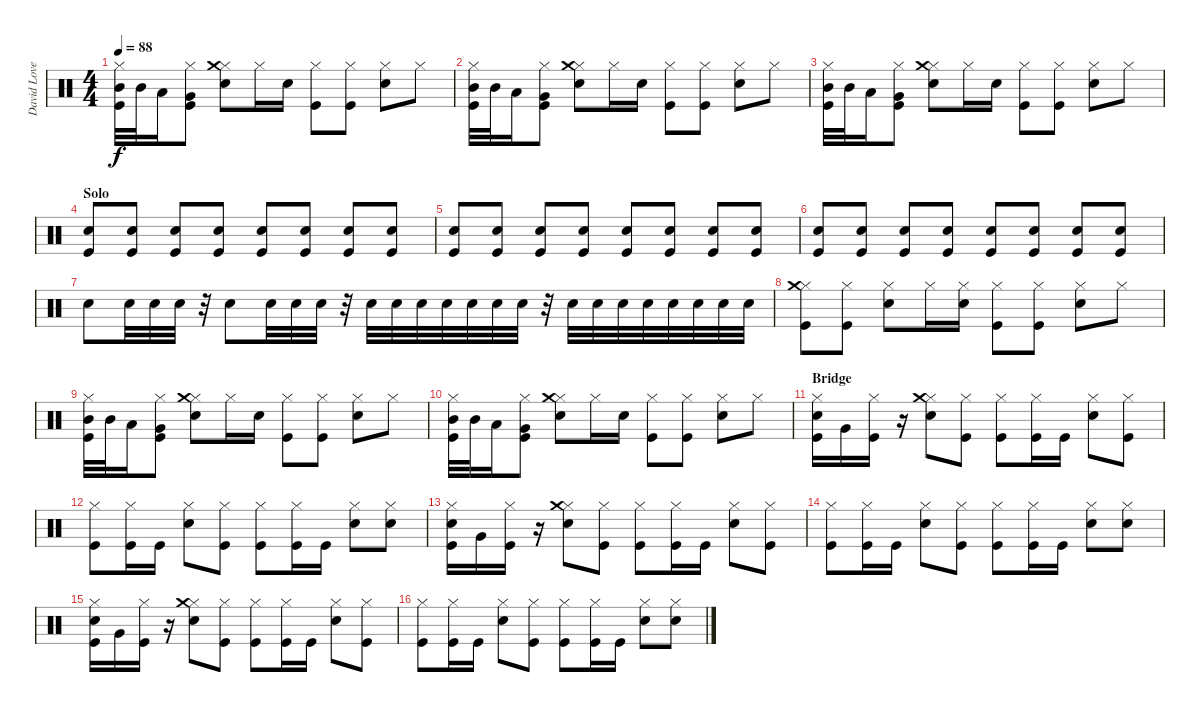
\track ("David Lovering" "David Love") {instrument percussion}
\staff {score}
\articulation defaults
\ts (4 4)
\tempo 88
\clef neutral
\ks c
("Hi-Hat (closed)" "Mid Tom (hit)" "Kick (hit)").32{dy f} "Mid Tom (hit)".32 "Low Tom (hit)".16 ("Hi-Hat (closed)" "Very Low Tom (hit)" "Kick (hit)").8 ("Hi-Hat (closed)" "Crash medium (hit)" "Snare (hit) 2").8 "Hi-Hat (closed)".16 "Snare (hit) 2".16 ("Hi-Hat (closed)" "Kick (hit)").8 ("Hi-Hat (closed)" "Kick (hit)").8 ("Hi-Hat (closed)" "Snare (hit) 2").8 "Hi-Hat (closed)".8 |
("Hi-Hat (closed)" "Mid Tom (hit)" "Kick (hit)").32 "Mid Tom (hit)".32 "Low Tom (hit)".16 ("Hi-Hat (closed)" "Very Low Tom (hit)" "Kick (hit)").8 ("Hi-Hat (closed)" "Crash medium (hit)" "Snare (hit) 2").8 "Hi-Hat (closed)".16 "Snare (hit) 2".16 ("Hi-Hat (closed)" "Kick (hit)").8 ("Hi-Hat (closed)" "Kick (hit)").8 ("Hi-Hat (closed)" "Snare (hit) 2").8 "Hi-Hat (closed)".8 |
("Hi-Hat (closed)" "Mid Tom (hit)" "Kick (hit)").32 "Mid Tom (hit)".32 "Low Tom (hit)".16 ("Hi-Hat (closed)" "Very Low Tom (hit)" "Kick (hit)").8 ("Hi-Hat (closed)" "Crash medium (hit)" "Snare (hit) 2").8 "Hi-Hat (closed)".16 "Snare (hit) 2".16 ("Hi-Hat (closed)" "Kick (hit)").8 ("Hi-Hat (closed)" "Kick (hit)").8 ("Hi-Hat (closed)" "Snare (hit) 2").8 "Hi-Hat (closed)".8 |
\section ("" "Solo")
("Snare (hit) 2" "Kick (hit)").8 ("Snare (hit) 2" "Kick (hit)").8 ("Snare (hit) 2" "Kick (hit)").8 ("Snare (hit) 2" "Kick (hit)").8 ("Snare (hit) 2" "Kick (hit)").8 ("Snare (hit) 2" "Kick (hit)").8 ("Snare (hit) 2" "Kick (hit)").8 ("Snare (hit) 2" "Kick (hit)").8 |
("Snare (hit) 2" "Kick (hit)").8 ("Snare (hit) 2" "Kick (hit)").8 ("Snare (hit) 2" "Kick (hit)").8 ("Snare (hit) 2" "Kick (hit)").8 ("Snare (hit) 2" "Kick (hit)").8 ("Snare (hit) 2" "Kick (hit)").8 ("Snare (hit) 2" "Kick (hit)").8 ("Snare (hit) 2" "Kick (hit)").8 |
("Snare (hit) 2" "Kick (hit)").8 ("Snare (hit) 2" "Kick (hit)").8 ("Snare (hit) 2" "Kick (hit)").8 ("Snare (hit) 2" "Kick (hit)").8 ("Snare (hit) 2" "Kick (hit)").8 ("Snare (hit) 2" "Kick (hit)").8 ("Snare (hit) 2" "Kick (hit)").8 ("Snare (hit) 2" "Kick (hit)").8 |
"Snare (hit) 2".8 "Snare (hit) 2".32 "Snare (hit) 2".32 "Snare (hit) 2".32 r.32 "Snare (hit) 2".8 "Snare (hit) 2".32 "Snare (hit) 2".32 "Snare (hit) 2".32 r.32 "Snare (hit) 2".32 "Snare (hit) 2".32 "Snare (hit) 2".32 "Snare (hit) 2".32 "Snare (hit) 2".32 "Snare (hit) 2".32 "Snare (hit) 2".32 r.32 "Snare (hit) 2".32 "Snare (hit) 2".32 "Snare (hit) 2".32 "Snare (hit) 2".32 "Snare (hit) 2".32 "Snare (hit) 2".32 "Snare (hit) 2".32 "Snare (hit) 2".32 |
("Hi-Hat (closed)" "Crash medium (hit)" "Kick (hit)").8 ("Hi-Hat (closed)" "Kick (hit)").8 ("Hi-Hat (closed)" "Snare (hit) 2").8 "Hi-Hat (closed)".16 ("Hi-Hat (closed)" "Snare (hit) 2").16 ("Hi-Hat (closed)" "Kick (hit)").8 ("Hi-Hat (closed)" "Kick (hit)").8 ("Hi-Hat (closed)" "Snare (hit) 2").8 "Hi-Hat (closed)".8 |
("Hi-Hat (closed)" "Mid Tom (hit)" "Kick (hit)").32 "Mid Tom (hit)".32 "Low Tom (hit)".16 ("Hi-Hat (closed)" "Very Low Tom (hit)" "Kick (hit)").8 ("Hi-Hat (closed)" "Crash medium (hit)" "Snare (hit) 2").8 "Hi-Hat (closed)".16 "Snare (hit) 2".16 ("Hi-Hat (closed)" "Kick (hit)").8 ("Hi-Hat (closed)" "Kick (hit)").8 ("Hi-Hat (closed)" "Snare (hit) 2").8 "Hi-Hat (closed)".8 |
("Hi-Hat (closed)" "Mid Tom (hit)" "Kick (hit)").32 "Mid Tom (hit)".32 "Low Tom (hit)".16 ("Hi-Hat (closed)" "Very Low Tom (hit)" "Kick (hit)").8 ("Hi-Hat (closed)" "Crash medium (hit)" "Snare (hit) 2").8 "Hi-Hat (closed)".16 "Snare (hit) 2".16 ("Hi-Hat (closed)" "Kick (hit)").8 ("Hi-Hat (closed)" "Kick (hit)").8 ("Hi-Hat (closed)" "Snare (hit) 2").8 "Hi-Hat (closed)".8 |
\section ("" "Bridge")
("Hi-Hat (closed)" "Snare (hit) 2" "Kick (hit)").16 "Very Low Tom (hit)".16 ("Hi-Hat (closed)" "Kick (hit)").16 r.16 ("Hi-Hat (closed)" "Crash medium (hit)" "Snare (hit) 2").8 ("Hi-Hat (closed)" "Kick (hit)").8 ("Hi-Hat (closed)" "Kick (hit)").8 ("Hi-Hat (closed)" "Kick (hit)").16 "Kick (hit)".16 ("Hi-Hat (closed)" "Snare (hit) 2").8 ("Hi-Hat (closed)" "Kick (hit)").8 |
("Hi-Hat (closed)" "Kick (hit)").8 ("Hi-Hat (closed)" "Kick (hit)").16 "Kick (hit)".16 ("Hi-Hat (closed)" "Snare (hit) 2").8 ("Hi-Hat (closed)" "Kick (hit)").8 ("Hi-Hat (closed)" "Kick (hit)").8 ("Hi-Hat (closed)" "Kick (hit)").16 "Kick (hit)".16 ("Hi-Hat (closed)" "Snare (hit) 2").8 ("Hi-Hat (closed)" "Snare (hit) 2").8 |
("Hi-Hat (closed)" "Snare (hit) 2" "Kick (hit)").16 "Very Low Tom (hit)".16 ("Hi-Hat (closed)" "Kick (hit)").16 r.16 ("Hi-Hat (closed)" "Crash medium (hit)" "Snare (hit) 2").8 ("Hi-Hat (closed)" "Kick (hit)").8 ("Hi-Hat (closed)" "Kick (hit)").8 ("Hi-Hat (closed)" "Kick (hit)").16 "Kick (hit)".16 ("Hi-Hat (closed)" "Snare (hit) 2").8 ("Hi-Hat (closed)" "Kick (hit)").8 |
("Hi-Hat (closed)" "Kick (hit)").8 ("Hi-Hat (closed)" "Kick (hit)").16 "Kick (hit)".16 ("Hi-Hat (closed)" "Snare (hit) 2").8 ("Hi-Hat (closed)" "Kick (hit)").8 ("Hi-Hat (closed)" "Kick (hit)").8 ("Hi-Hat (closed)" "Kick (hit)").16 "Kick (hit)".16 ("Hi-Hat (closed)" "Snare (hit) 2").8 ("Hi-Hat (closed)" "Snare (hit) 2").8 |
("Hi-Hat (closed)" "Snare (hit) 2" "Kick (hit)").16 "Very Low Tom (hit)".16 ("Hi-Hat (closed)" "Kick (hit)").16 r.16 ("Hi-Hat (closed)" "Crash medium (hit)" "Snare (hit) 2").8 ("Hi-Hat (closed)" "Kick (hit)").8 ("Hi-Hat (closed)" "Kick (hit)").8 ("Hi-Hat (closed)" "Kick (hit)").16 "Kick (hit)".16 ("Hi-Hat (closed)" "Snare (hit) 2").8 ("Hi-Hat (closed)" "Kick (hit)").8 |
("Hi-Hat (closed)" "Kick (hit)").8 ("Hi-Hat (closed)" "Kick (hit)").16 "Kick (hit)".16 ("Hi-Hat (closed)" "Snare (hit) 2").8 ("Hi-Hat (closed)" "Kick (hit)").8 ("Hi-Hat (closed)" "Kick (hit)").8 ("Hi-Hat (closed)" "Kick (hit)").16 "Kick (hit)".16 ("Hi-Hat (closed)" "Snare (hit) 2").8 ("Hi-Hat (closed)" "Snare (hit) 2").8
